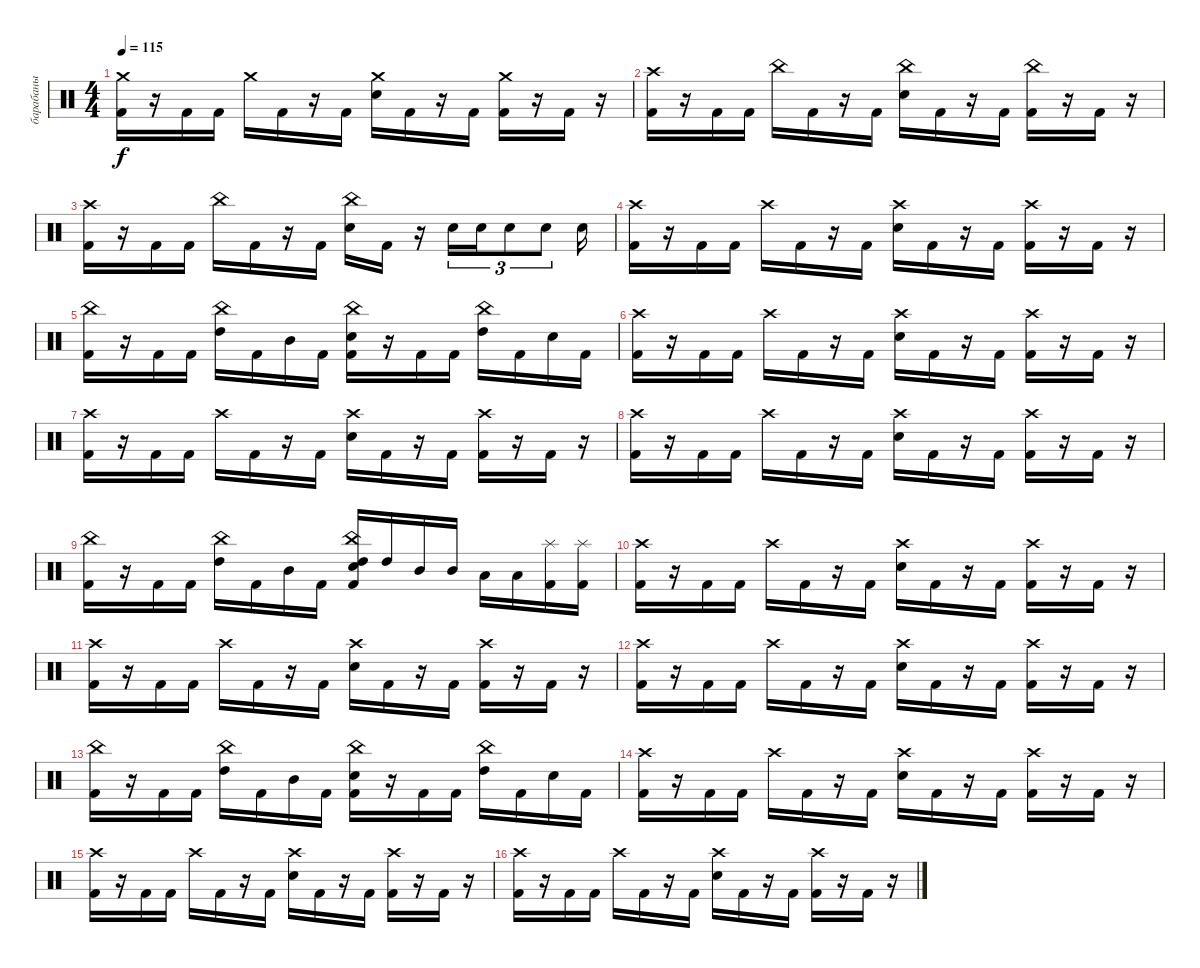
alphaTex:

\track ("барабаны" "барабаны") {instrument percussion}
\staff {score}
\articulation defaults
\ts (4 4)
\tempo 115
\clef neutral
\ks c
("Crash medium (hit)" "Kick (hit) 2").16{dy f} r.16 "Kick (hit) 2".16 "Kick (hit) 2".16 "Crash medium (hit)".16 "Kick (hit) 2".16 r.16 "Kick (hit) 2".16 ("Crash medium (hit)" "Snare (hit) 2").16 "Kick (hit) 2".16 r.16 "Kick (hit) 2".16 ("Crash medium (hit)" "Kick (hit) 2").16 r.16 "Kick (hit) 2".16 r.16 |
("Crash high (hit)" "Kick (hit) 2").16 r.16 "Kick (hit) 2".16 "Kick (hit) 2".16 "China (hit)".16 "Kick (hit) 2".16 r.16 "Kick (hit) 2".16 ("China (hit)" "Snare (hit) 2").16 "Kick (hit) 2".16 r.16 "Kick (hit) 2".16 ("China (hit)" "Kick (hit) 2").16 r.16 "Kick (hit) 2".16 r.16 |
("Crash high (hit)" "Kick (hit) 2").16 r.16 "Kick (hit) 2".16 "Kick (hit) 2".16 "China (hit)".16 "Kick (hit) 2".16 r.16 "Kick (hit) 2".16 ("China (hit)" "Snare (hit) 2").16 "Kick (hit) 2".16 r.16 "Snare (hit) 2".16{tu (3 2)} "Snare (hit) 2".16{tu (3 2)} "Snare (hit) 2".8{tu (3 2)} "Snare (hit) 2".8{tu (3 2)} "Snare (hit) 2".16 |
("Crash high (hit)" "Kick (hit) 2").16 r.16 "Kick (hit) 2".16 "Kick (hit) 2".16 "Crash high (hit)".16 "Kick (hit) 2".16 r.16 "Kick (hit) 2".16 ("Crash high (hit)" "Snare (hit) 2").16 "Kick (hit) 2".16 r.16 "Kick (hit) 2".16 ("Crash high (hit)" "Kick (hit) 2").16 r.16 "Kick (hit) 2".16 r.16 |
("China (hit)" "Kick (hit) 2").16 r.16 "Kick (hit) 2".16 "Kick (hit) 2".16 ("China (hit)" "High Tom (hit)").16 "Kick (hit) 2".16 "Mid Tom (hit)".16 "Kick (hit) 2".16 ("China (hit)" "Snare (hit) 2" "Kick (hit) 2").16 r.16 "Kick (hit) 2".16 "Kick (hit) 2".16 ("China (hit)" "High Tom (hit)").16 "Kick (hit) 2".16 "Snare (hit) 2".16 "Kick (hit) 2".16 |
("Crash high (hit)" "Kick (hit) 2").16 r.16 "Kick (hit) 2".16 "Kick (hit) 2".16 "Crash high (hit)".16 "Kick (hit) 2".16 r.16 "Kick (hit) 2".16 ("Crash high (hit)" "Snare (hit) 2").16 "Kick (hit) 2".16 r.16 "Kick (hit) 2".16 ("Crash high (hit)" "Kick (hit) 2").16 r.16 "Kick (hit) 2".16 r.16 |
("Crash high (hit)" "Kick (hit) 2").16 r.16 "Kick (hit) 2".16 "Kick (hit) 2".16 "Crash high (hit)".16 "Kick (hit) 2".16 r.16 "Kick (hit) 2".16 ("Crash high (hit)" "Snare (hit) 2").16 "Kick (hit) 2".16 r.16 "Kick (hit) 2".16 ("Crash high (hit)" "Kick (hit) 2").16 r.16 "Kick (hit) 2".16 r.16 |
("Crash high (hit)" "Kick (hit) 2").16 r.16 "Kick (hit) 2".16 "Kick (hit) 2".16 "Crash high (hit)".16 "Kick (hit) 2".16 r.16 "Kick (hit) 2".16 ("Crash high (hit)" "Snare (hit) 2").16 "Kick (hit) 2".16 r.16 "Kick (hit) 2".16 ("Crash high (hit)" "Kick (hit) 2").16 r.16 "Kick (hit) 2".16 r.16 |
("China (hit)" "Kick (hit) 2").16 r.16 "Kick (hit) 2".16 "Kick (hit) 2".16 ("China (hit)" "High Tom (hit)").16 "Kick (hit) 2".16 "Mid Tom (hit)".16 "Kick (hit) 2".16 ("China (hit)" "Snare (hit) 2" "High Tom (hit)" "Kick (hit) 2").16 "High Tom (hit)".16 "Mid Tom (hit)".16 "Mid Tom (hit)".16 "Low Tom (hit)".16 "Low Tom (hit)".16 ("Splash (hit)" "Kick (hit) 2").16 ("Splash (hit)" "Kick (hit) 2").16 |
("Crash high (hit)" "Kick (hit) 2").16 r.16 "Kick (hit) 2".16 "Kick (hit) 2".16 "Crash high (hit)".16 "Kick (hit) 2".16 r.16 "Kick (hit) 2".16 ("Crash high (hit)" "Snare (hit) 2").16 "Kick (hit) 2".16 r.16 "Kick (hit) 2".16 ("Crash high (hit)" "Kick (hit) 2").16 r.16 "Kick (hit) 2".16 r.16 |
("Crash high (hit)" "Kick (hit) 2").16 r.16 "Kick (hit) 2".16 "Kick (hit) 2".16 "Crash high (hit)".16 "Kick (hit) 2".16 r.16 "Kick (hit) 2".16 ("Crash high (hit)" "Snare (hit) 2").16 "Kick (hit) 2".16 r.16 "Kick (hit) 2".16 ("Crash high (hit)" "Kick (hit) 2").16 r.16 "Kick (hit) 2".16 r.16 |
("Crash high (hit)" "Kick (hit) 2").16 r.16 "Kick (hit) 2".16 "Kick (hit) 2".16 "Crash high (hit)".16 "Kick (hit) 2".16 r.16 "Kick (hit) 2".16 ("Crash high (hit)" "Snare (hit) 2").16 "Kick (hit) 2".16 r.16 "Kick (hit) 2".16 ("Crash high (hit)" "Kick (hit) 2").16 r.16 "Kick (hit) 2".16 r.16 |
("China (hit)" "Kick (hit) 2").16 r.16 "Kick (hit) 2".16 "Kick (hit) 2".16 ("China (hit)" "High Tom (hit)").16 "Kick (hit) 2".16 "Mid Tom (hit)".16 "Kick (hit) 2".16 ("China (hit)" "Snare (hit) 2" "Kick (hit) 2").16 r.16 "Kick (hit) 2".16 "Kick (hit) 2".16 ("China (hit)" "High Tom (hit)").16 "Kick (hit) 2".16 "Snare (hit) 2".16 "Kick (hit) 2".16 |
("Crash high (hit)" "Kick (hit) 2").16 r.16 "Kick (hit) 2".16 "Kick (hit) 2".16 "Crash high (hit)".16 "Kick (hit) 2".16 r.16 "Kick (hit) 2".16 ("Crash high (hit)" "Snare (hit) 2").16 "Kick (hit) 2".16 r.16 "Kick (hit) 2".16 ("Crash high (hit)" "Kick (hit) 2").16 r.16 "Kick (hit) 2".16 r.16 |
("Crash high (hit)" "Kick (hit) 2").16 r.16 "Kick (hit) 2".16 "Kick (hit) 2".16 "Crash high (hit)".16 "Kick (hit) 2".16 r.16 "Kick (hit) 2".16 ("Crash high (hit)" "Snare (hit) 2").16 "Kick (hit) 2".16 r.16 "Kick (hit) 2".16 ("Crash high (hit)" "Kick (hit) 2").16 r.16 "Kick (hit) 2".16 r.16 |
("Crash high (hit)" "Kick (hit) 2").16 r.16 "Kick (hit) 2".16 "Kick (hit) 2".16 "Crash high (hit)".16 "Kick (hit) 2".16 r.16 "Kick (hit) 2".16 ("Crash high (hit)" "Snare (hit) 2").16 "Kick (hit) 2".16 r.16 "Kick (hit) 2".16 ("Crash high (hit)" "Kick (hit) 2").16 r.16 "Kick (hit) 2".16 r.16
